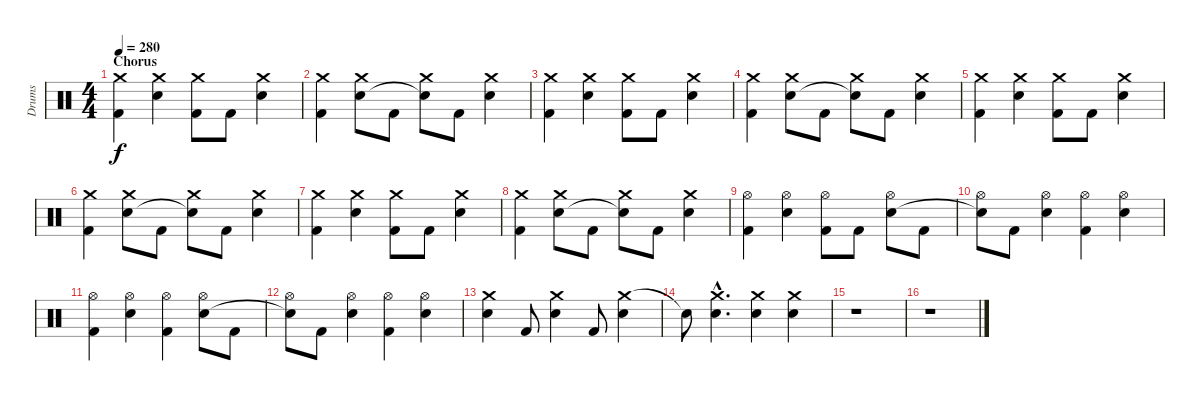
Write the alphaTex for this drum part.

\track ("Drums" "Drums") {instrument percussion}
\staff {score}
\articulation defaults
\ts (4 4)
\section ("" "Chorus")
\tempo 280
\clef neutral
\ks c
("Crash medium (hit)" "Kick (hit) 2").4{dy f} ("Crash medium (hit)" "Snare (hit) 2").4 ("Crash medium (hit)" "Kick (hit) 2").8 "Kick (hit) 2".8 ("Crash medium (hit)" "Snare (hit) 2").4 |
("Crash medium (hit)" "Kick (hit) 2").4 ("Crash medium (hit)" "Snare (hit) 2").8 "Kick (hit) 2".8 ("Crash medium (hit)" "Snare (hit)"{t}).8 "Kick (hit) 2".8 ("Crash medium (hit)" "Snare (hit) 2").4 |
("Crash medium (hit)" "Kick (hit) 2").4 ("Crash medium (hit)" "Snare (hit) 2").4 ("Crash medium (hit)" "Kick (hit) 2").8 "Kick (hit) 2".8 ("Crash medium (hit)" "Snare (hit) 2").4 |
("Crash medium (hit)" "Kick (hit) 2").4 ("Crash medium (hit)" "Snare (hit) 2").8 "Kick (hit) 2".8 ("Crash medium (hit)" "Snare (hit)"{t}).8 "Kick (hit) 2".8 ("Crash medium (hit)" "Snare (hit) 2").4 |
("Crash medium (hit)" "Kick (hit) 2").4 ("Crash medium (hit)" "Snare (hit) 2").4 ("Crash medium (hit)" "Kick (hit) 2").8 "Kick (hit) 2".8 ("Crash medium (hit)" "Snare (hit) 2").4 |
("Crash medium (hit)" "Kick (hit) 2").4 ("Crash medium (hit)" "Snare (hit) 2").8 "Kick (hit) 2".8 ("Crash medium (hit)" "Snare (hit)"{t}).8 "Kick (hit) 2".8 ("Crash medium (hit)" "Snare (hit) 2").4 |
("Crash medium (hit)" "Kick (hit) 2").4 ("Crash medium (hit)" "Snare (hit) 2").4 ("Crash medium (hit)" "Kick (hit) 2").8 "Kick (hit) 2".8 ("Crash medium (hit)" "Snare (hit) 2").4 |
("Crash medium (hit)" "Kick (hit) 2").4 ("Crash medium (hit)" "Snare (hit) 2").8 "Kick (hit) 2".8 ("Crash medium (hit)" "Snare (hit)"{t}).8 "Kick (hit) 2".8 ("Crash medium (hit)" "Snare (hit) 2").4 |
("Hi-Hat (open)" "Kick (hit) 2").4 ("Hi-Hat (open)" "Snare (hit) 2").4 ("Hi-Hat (open)" "Kick (hit) 2").8 "Kick (hit) 2".8 ("Hi-Hat (open)" "Snare (hit) 2").8 "Kick (hit) 2".8 |
("Hi-Hat (open)" "Snare (hit)"{t}).8 "Kick (hit) 2".8 ("Hi-Hat (open)" "Snare (hit) 2").4 ("Hi-Hat (open)" "Kick (hit) 2").4 ("Hi-Hat (open)" "Snare (hit) 2").4 |
("Hi-Hat (open)" "Kick (hit) 2").4 ("Hi-Hat (open)" "Snare (hit) 2").4 ("Hi-Hat (open)" "Kick (hit) 2").4 ("Hi-Hat (open)" "Snare (hit) 2").8 "Kick (hit) 2".8 |
("Hi-Hat (open)" "Snare (hit)"{t}).8 "Kick (hit) 2".8 ("Hi-Hat (open)" "Snare (hit) 2").4 ("Hi-Hat (open)" "Kick (hit) 2").4 ("Hi-Hat (open)" "Snare (hit) 2").4 |
("Crash medium (hit)" "Snare (hit) 2").4 "Kick (hit) 2".8 ("Crash medium (hit)" "Snare (hit) 2").4 "Kick (hit) 2".8 ("Crash medium (hit)" "Snare (hit) 2").4 |
"Snare (hit) 2"{t}.8 ("Crash medium (hit)"{hac} "Snare (hit) 2"{hac}).4{d} ("Crash medium (hit)" "Snare (hit) 2").4 ("Crash medium (hit)" "Snare (hit) 2").4 |
r.1 |
r.1
